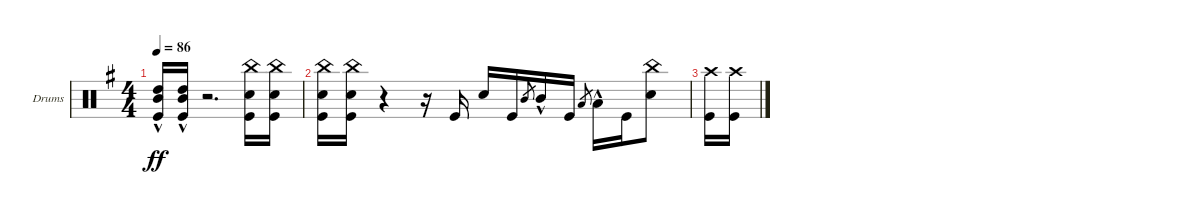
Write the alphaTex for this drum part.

\defaultSystemsLayout 4
\bracketExtendMode groupsimilarinstruments
\firstSystemTrackNameOrientation horizontal
\otherSystemsTrackNameOrientation horizontal
\track ("Drumkit" "Drums") {instrument percussion}
\staff {score}
\articulation defaults
\ts (4 4)
\tempo 86
\clef neutral
\ks eminor
("High Tom (hit)"{hac} "Mid Tom (hit)"{hac} "Kick (hit)").16{dy ff} ("High Tom (hit)"{hac} "Mid Tom (hit)"{hac} "Kick (hit)").16 r.2{d} ("Kick (hit)" "Snare (hit) 2" "China (hit)").16 ("Snare (hit) 2" "China (hit)" "Kick (hit)").16 |
("Kick (hit)" "Snare (hit) 2" "China (hit)").16 ("Snare (hit) 2" "China (hit)" "Kick (hit)").16 r.4 r.16 "Kick (hit)".16 "Snare (hit) 2".16 "Kick (hit)".16 "Mid Tom (hit)".8{gr} "Mid Tom (hit)"{hac}.16 "Kick (hit)".16 "Low Tom (hit)".8{gr} "Low Tom (hit)"{hac}.16 "Kick (hit)".16 ("Snare (hit) 2" "China (hit)").8 |
("Kick (hit)" "Crash high (hit)").16 ("Kick (hit)" "Crash high (hit)").16
